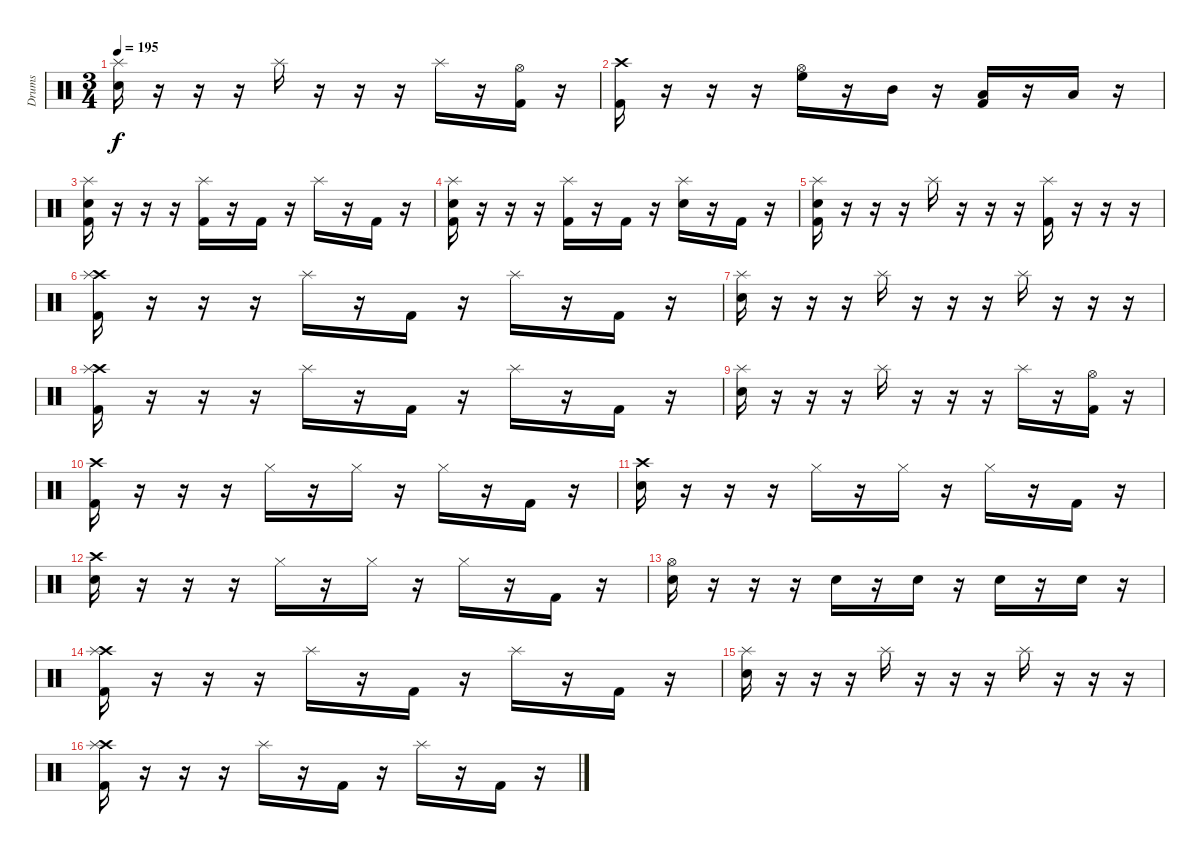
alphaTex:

\track ("Drums" "Drums") {instrument percussion}
\staff {score}
\articulation defaults
\ts (3 4)
\tempo 195
\clef neutral
\ks c
("Splash (hit)" "Snare (hit) 2").16{dy f} r.16 r.16 r.16 "Splash (hit)".16 r.16 r.16 r.16 "Splash (hit)".16 r.16 ("Hi-Hat (open)" "Kick (hit) 2").16 r.16 |
("Crash high (hit)" "Kick (hit) 2").16 r.16 r.16 r.16 ("Hi-Hat (open)" "High Floor Tom (hit)").16 r.16 "Mid Tom (hit)".16 r.16 ("Low Tom (hit)" "Kick (hit) 2").16 r.16 "Low Tom (hit)".16 r.16 |
("Splash (hit)" "Snare (hit) 2" "Kick (hit) 2").16 r.16 r.16 r.16 ("Splash (hit)" "Kick (hit) 2").16 r.16 "Kick (hit) 2".16 r.16 "Splash (hit)".16 r.16 "Kick (hit) 2".16 r.16 |
("Splash (hit)" "Snare (hit) 2" "Kick (hit) 2").16 r.16 r.16 r.16 ("Splash (hit)" "Kick (hit) 2").16 r.16 "Kick (hit) 2".16 r.16 ("Splash (hit)" "Snare (hit) 2").16 r.16 "Kick (hit) 2".16 r.16 |
("Splash (hit)" "Snare (hit) 2" "Kick (hit) 2").16 r.16 r.16 r.16 "Splash (hit)".16 r.16 r.16 r.16 ("Splash (hit)" "Kick (hit) 2").16 r.16 r.16 r.16 |
("Crash high (hit)" "Splash (hit)" "Kick (hit) 2").16 r.16 r.16 r.16 "Splash (hit)".16 r.16 "Kick (hit) 2".16 r.16 "Splash (hit)".16 r.16 "Kick (hit) 2".16 r.16 |
("Splash (hit)" "Snare (hit) 2").16 r.16 r.16 r.16 "Splash (hit)".16 r.16 r.16 r.16 "Splash (hit)".16 r.16 r.16 r.16 |
("Crash high (hit)" "Splash (hit)" "Kick (hit) 2").16 r.16 r.16 r.16 "Splash (hit)".16 r.16 "Kick (hit) 2".16 r.16 "Splash (hit)".16 r.16 "Kick (hit) 2".16 r.16 |
("Splash (hit)" "Snare (hit) 2").16 r.16 r.16 r.16 "Splash (hit)".16 r.16 r.16 r.16 "Splash (hit)".16 r.16 ("Hi-Hat (open)" "Kick (hit) 2").16 r.16 |
("Crash high (hit)" "Kick (hit) 2").16 r.16 r.16 r.16 "Hi-Hat (closed)".16 r.16 "Hi-Hat (closed)".16 r.16 "Hi-Hat (closed)".16 r.16 "Kick (hit) 2".16 r.16 |
("Crash high (hit)" "Snare (hit) 2").16 r.16 r.16 r.16 "Hi-Hat (closed)".16 r.16 "Hi-Hat (closed)".16 r.16 "Hi-Hat (closed)".16 r.16 "Kick (hit) 2".16 r.16 |
("Crash high (hit)" "Snare (hit) 2").16 r.16 r.16 r.16 "Hi-Hat (closed)".16 r.16 "Hi-Hat (closed)".16 r.16 "Hi-Hat (closed)".16 r.16 "Kick (hit) 2".16 r.16 |
("Hi-Hat (open)" "Snare (hit) 2").16 r.16 r.16 r.16 "Snare (hit) 2".16 r.16 "Snare (hit) 2".16 r.16 "Snare (hit) 2".16 r.16 "Snare (hit) 2".16 r.16 |
("Crash high (hit)" "Splash (hit)" "Kick (hit) 2").16 r.16 r.16 r.16 "Splash (hit)".16 r.16 "Kick (hit) 2".16 r.16 "Splash (hit)".16 r.16 "Kick (hit) 2".16 r.16 |
("Splash (hit)" "Snare (hit) 2").16 r.16 r.16 r.16 "Splash (hit)".16 r.16 r.16 r.16 "Splash (hit)".16 r.16 r.16 r.16 |
("Crash high (hit)" "Splash (hit)" "Kick (hit) 2").16 r.16 r.16 r.16 "Splash (hit)".16 r.16 "Kick (hit) 2".16 r.16 "Splash (hit)".16 r.16 "Kick (hit) 2".16 r.16
